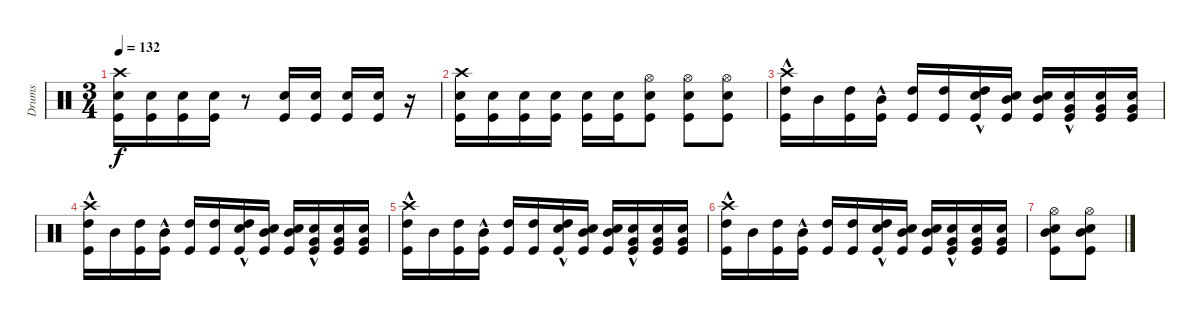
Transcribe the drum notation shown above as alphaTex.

\track ("Drums" "Drums") {instrument percussion}
\staff {score}
\articulation defaults
\ts (3 4)
\tempo 132
\clef neutral
\ks c
("Crash high (hit)" "Snare (hit) 2" "Kick (hit)").16{dy f} ("Snare (hit) 2" "Kick (hit)").16 ("Snare (hit) 2" "Kick (hit)").16 ("Snare (hit) 2" "Kick (hit)").16 r.8 ("Snare (hit) 2" "Kick (hit)").16 ("Snare (hit) 2" "Kick (hit)").16 ("Snare (hit) 2" "Kick (hit)").16 ("Snare (hit) 2" "Kick (hit)").16 r.16 |
("Crash high (hit)" "Snare (hit) 2" "Kick (hit)").16 ("Snare (hit) 2" "Kick (hit)").16 ("Snare (hit) 2" "Kick (hit)").16 ("Snare (hit) 2" "Kick (hit)").16 ("Snare (hit) 2" "Kick (hit)").16 ("Snare (hit) 2" "Kick (hit)").16 ("Hi-Hat (open)" "Snare (hit) 2" "Kick (hit)").8 ("Hi-Hat (open)" "Snare (hit) 2" "Kick (hit)").8 ("Hi-Hat (open)" "Snare (hit) 2" "Kick (hit)").8 |
("High Tom (hit)"{hac} "Crash high (hit)" "Kick (hit)").16 "Mid Tom (hit)".16 ("High Tom (hit)" "Kick (hit)").16 ("Mid Tom (hit)"{hac} "Kick (hit)").16 ("High Tom (hit)" "Kick (hit)").16 ("High Tom (hit)" "Kick (hit)").16 ("High Tom (hit)"{hac} "Snare (hit) 2" "Kick (hit)").16 ("Mid Tom (hit)" "Snare (hit) 2" "Kick (hit)").16 ("Mid Tom (hit)" "Snare (hit) 2" "Kick (hit)").16 ("Very Low Tom (hit)"{hac} "Snare (hit) 2" "Kick (hit)").16 ("Very Low Tom (hit)" "Snare (hit) 2" "Kick (hit)").16 ("Very Low Tom (hit)" "Snare (hit) 2" "Kick (hit)").16 |
("High Tom (hit)"{hac} "Crash high (hit)" "Kick (hit)").16 "Mid Tom (hit)".16 ("High Tom (hit)" "Kick (hit)").16 ("Mid Tom (hit)"{hac} "Kick (hit)").16 ("High Tom (hit)" "Kick (hit)").16 ("High Tom (hit)" "Kick (hit)").16 ("High Tom (hit)"{hac} "Snare (hit) 2" "Kick (hit)").16 ("Mid Tom (hit)" "Snare (hit) 2" "Kick (hit)").16 ("Mid Tom (hit)" "Snare (hit) 2" "Kick (hit)").16 ("Very Low Tom (hit)"{hac} "Snare (hit) 2" "Kick (hit)").16 ("Very Low Tom (hit)" "Snare (hit) 2" "Kick (hit)").16 ("Very Low Tom (hit)" "Snare (hit) 2" "Kick (hit)").16 |
("High Tom (hit)"{hac} "Crash high (hit)" "Kick (hit)").16 "Mid Tom (hit)".16 ("High Tom (hit)" "Kick (hit)").16 ("Mid Tom (hit)"{hac} "Kick (hit)").16 ("High Tom (hit)" "Kick (hit)").16 ("High Tom (hit)" "Kick (hit)").16 ("High Tom (hit)"{hac} "Snare (hit) 2" "Kick (hit)").16 ("Mid Tom (hit)" "Snare (hit) 2" "Kick (hit)").16 ("Mid Tom (hit)" "Snare (hit) 2" "Kick (hit)").16 ("Very Low Tom (hit)"{hac} "Snare (hit) 2" "Kick (hit)").16 ("Very Low Tom (hit)" "Snare (hit) 2" "Kick (hit)").16 ("Very Low Tom (hit)" "Snare (hit) 2" "Kick (hit)").16 |
("High Tom (hit)"{hac} "Crash high (hit)" "Kick (hit)").16 "Mid Tom (hit)".16 ("High Tom (hit)" "Kick (hit)").16 ("Mid Tom (hit)"{hac} "Kick (hit)").16 ("High Tom (hit)" "Kick (hit)").16 ("High Tom (hit)" "Kick (hit)").16 ("High Tom (hit)"{hac} "Snare (hit) 2" "Kick (hit)").16 ("Mid Tom (hit)" "Snare (hit) 2" "Kick (hit)").16 ("Mid Tom (hit)" "Snare (hit) 2" "Kick (hit)").16 ("Very Low Tom (hit)"{hac} "Snare (hit) 2" "Kick (hit)").16 ("Very Low Tom (hit)" "Snare (hit) 2" "Kick (hit)").16 ("Very Low Tom (hit)" "Snare (hit) 2" "Kick (hit)").16 |
("Kick (hit)" "Mid Tom (hit)" "Snare (hit) 2" "Hi-Hat (open)").8 ("Kick (hit)" "Mid Tom (hit)" "Snare (hit) 2" "Hi-Hat (open)").8
